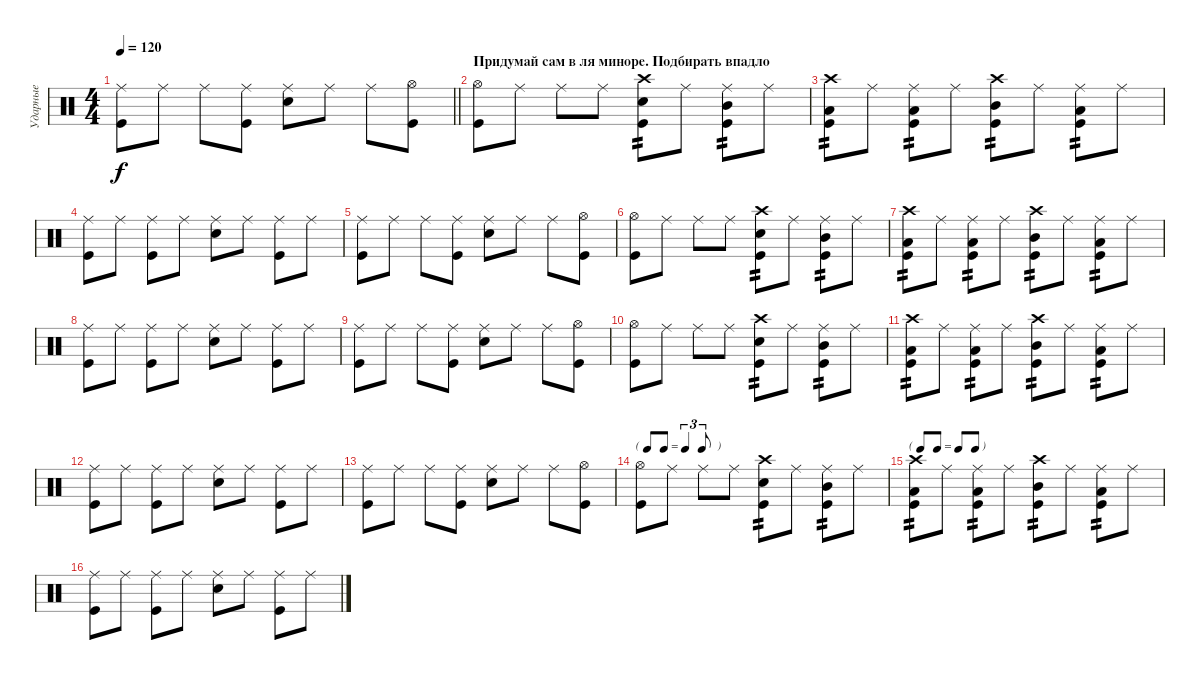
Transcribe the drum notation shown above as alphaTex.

\track ("Ударные" "Ударные") {instrument percussion}
\staff {score}
\articulation defaults
\ts (4 4)
\tempo 120
\clef neutral
\barLineRight lightlight
\ks c
("Ride (middle)" "Kick (hit)").8{dy f} "Ride (middle)".8 "Ride (middle)".8 ("Ride (middle)" "Kick (hit)").8 ("Ride (middle)" "Snare (hit) 2").8 "Ride (middle)".8 "Ride (middle)".8 ("Hi-Hat (open)" "Kick (hit)").8 |
\section ("" "Придумай сам в ля миноре. Подбирать впадло")
("Hi-Hat (open)" "Kick (hit)").8 "Ride (middle)".8 "Ride (middle)".8 "Ride (middle)".8 ("Crash high (hit)" "Kick (hit)" "Snare (hit) 2").8{tp 2} "Ride (middle)".8 ("Ride (middle)" "Kick (hit)" "Mid Tom (hit)").8{tp 2} "Ride (middle)".8 |
("Crash high (hit)" "Kick (hit)" "Low Tom (hit)").8{tp 2} "Ride (middle)".8 ("Ride (middle)" "Kick (hit)" "Low Tom (hit)").8{tp 2} "Ride (middle)".8 ("Crash high (hit)" "Kick (hit)" "Mid Tom (hit)").8{tp 2} "Ride (middle)".8 ("Ride (middle)" "Kick (hit)" "Low Tom (hit)").8{tp 2} "Ride (middle)".8 |
("Ride (middle)" "Kick (hit)").8{volume 8} "Ride (middle)".8 ("Ride (middle)" "Kick (hit)").8 "Ride (middle)".8 ("Ride (middle)" "Snare (hit) 2").8 "Ride (middle)".8 ("Ride (middle)" "Kick (hit)").8 "Ride (middle)".8 |
("Ride (middle)" "Kick (hit)").8 "Ride (middle)".8 "Ride (middle)".8 ("Ride (middle)" "Kick (hit)").8 ("Ride (middle)" "Snare (hit) 2").8 "Ride (middle)".8 "Ride (middle)".8 ("Hi-Hat (open)" "Kick (hit)").8 |
("Hi-Hat (open)" "Kick (hit)").8 "Ride (middle)".8 "Ride (middle)".8 "Ride (middle)".8 ("Crash high (hit)" "Kick (hit)" "Snare (hit) 2").8{tp 2} "Ride (middle)".8 ("Ride (middle)" "Kick (hit)" "Mid Tom (hit)").8{tp 2} "Ride (middle)".8 |
("Crash high (hit)" "Kick (hit)" "Low Tom (hit)").8{tp 2} "Ride (middle)".8 ("Ride (middle)" "Kick (hit)" "Low Tom (hit)").8{tp 2} "Ride (middle)".8 ("Crash high (hit)" "Kick (hit)" "Mid Tom (hit)").8{tp 2} "Ride (middle)".8 ("Ride (middle)" "Kick (hit)" "Low Tom (hit)").8{tp 2} "Ride (middle)".8 |
("Ride (middle)" "Kick (hit)").8{volume 8} "Ride (middle)".8 ("Ride (middle)" "Kick (hit)").8 "Ride (middle)".8 ("Ride (middle)" "Snare (hit) 2").8 "Ride (middle)".8 ("Ride (middle)" "Kick (hit)").8 "Ride (middle)".8 |
("Ride (middle)" "Kick (hit)").8 "Ride (middle)".8 "Ride (middle)".8 ("Ride (middle)" "Kick (hit)").8 ("Ride (middle)" "Snare (hit) 2").8 "Ride (middle)".8 "Ride (middle)".8 ("Hi-Hat (open)" "Kick (hit)").8 |
("Hi-Hat (open)" "Kick (hit)").8 "Ride (middle)".8 "Ride (middle)".8 "Ride (middle)".8 ("Crash high (hit)" "Kick (hit)" "Snare (hit) 2").8{tp 2} "Ride (middle)".8 ("Ride (middle)" "Kick (hit)" "Mid Tom (hit)").8{tp 2} "Ride (middle)".8 |
("Crash high (hit)" "Kick (hit)" "Low Tom (hit)").8{tp 2} "Ride (middle)".8 ("Ride (middle)" "Kick (hit)" "Low Tom (hit)").8{tp 2} "Ride (middle)".8 ("Crash high (hit)" "Kick (hit)" "Mid Tom (hit)").8{tp 2} "Ride (middle)".8 ("Ride (middle)" "Kick (hit)" "Low Tom (hit)").8{tp 2} "Ride (middle)".8 |
("Ride (middle)" "Kick (hit)").8{volume 8} "Ride (middle)".8 ("Ride (middle)" "Kick (hit)").8 "Ride (middle)".8 ("Ride (middle)" "Snare (hit) 2").8 "Ride (middle)".8 ("Ride (middle)" "Kick (hit)").8 "Ride (middle)".8 |
("Ride (middle)" "Kick (hit)").8 "Ride (middle)".8 "Ride (middle)".8 ("Ride (middle)" "Kick (hit)").8 ("Ride (middle)" "Snare (hit) 2").8 "Ride (middle)".8 "Ride (middle)".8 ("Hi-Hat (open)" "Kick (hit)").8 |
\tf triplet8th
("Hi-Hat (open)" "Kick (hit)").8 "Ride (middle)".8 "Ride (middle)".8 "Ride (middle)".8 ("Crash high (hit)" "Kick (hit)" "Snare (hit) 2").8{tp 2} "Ride (middle)".8 ("Ride (middle)" "Kick (hit)" "Mid Tom (hit)").8{tp 2} "Ride (middle)".8 |
\tf none
("Crash high (hit)" "Kick (hit)" "Low Tom (hit)").8{tp 2} "Ride (middle)".8 ("Ride (middle)" "Kick (hit)" "Low Tom (hit)").8{tp 2} "Ride (middle)".8 ("Crash high (hit)" "Kick (hit)" "Mid Tom (hit)").8{tp 2} "Ride (middle)".8 ("Ride (middle)" "Kick (hit)" "Low Tom (hit)").8{tp 2} "Ride (middle)".8 |
("Ride (middle)" "Kick (hit)").8{volume 8} "Ride (middle)".8 ("Ride (middle)" "Kick (hit)").8 "Ride (middle)".8 ("Ride (middle)" "Snare (hit) 2").8 "Ride (middle)".8 ("Ride (middle)" "Kick (hit)").8 "Ride (middle)".8
